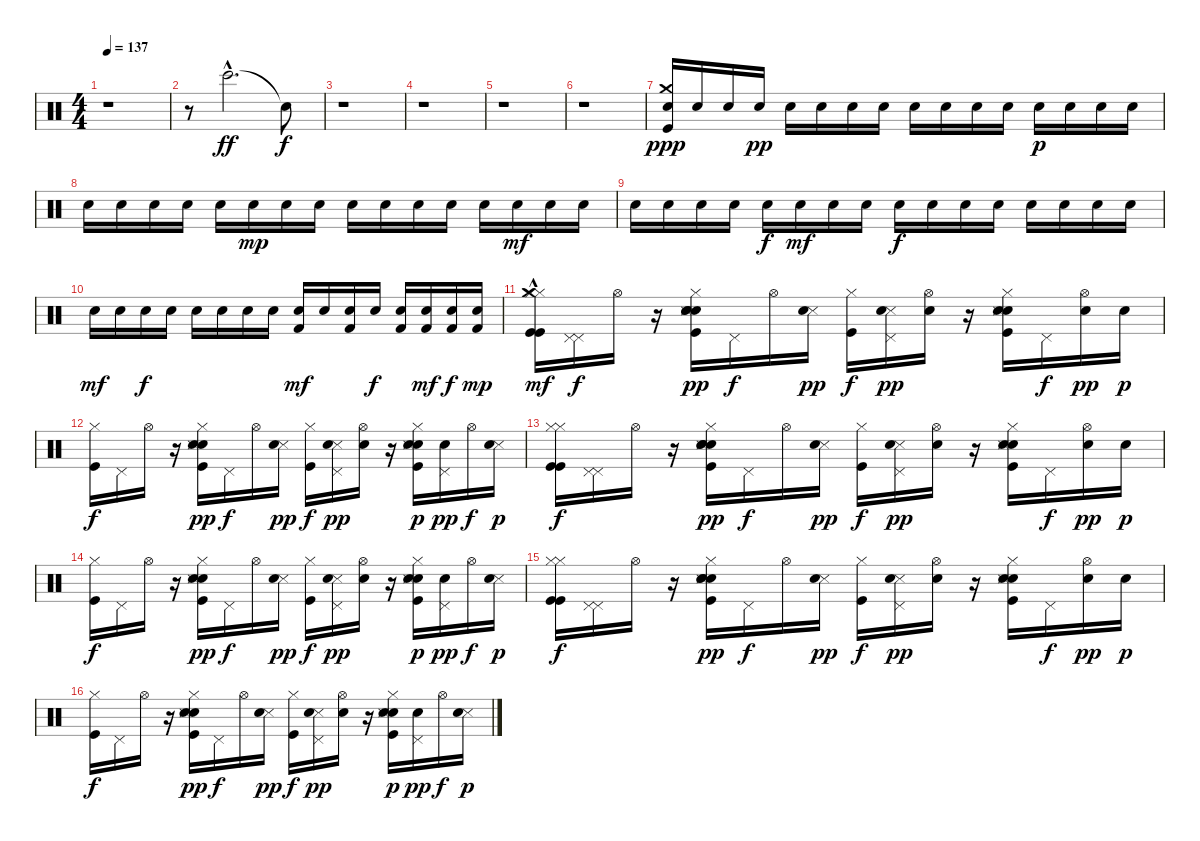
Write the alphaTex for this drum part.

\track "" {instrument percussion}
\staff {score}
\articulation defaults
\ts (4 4)
\tempo 137
\clef neutral
\ks c
r.1{dy ff} |
r.8 "Bongo High (hit)"{hac}.2{d} "Snare (hit)"{t}.8{dy f} |
r.1 |
r.1 |
r.1 |
r.1 |
("Kick (hit)" "Crash medium (hit)" "Electric Snare (hit)").16{dy ppp} "Electric Snare (hit)".16 "Electric Snare (hit)".16 "Electric Snare (hit)".16{dy pp} "Electric Snare (hit)".16 "Electric Snare (hit)".16 "Electric Snare (hit)".16 "Electric Snare (hit)".16 "Electric Snare (hit)".16 "Electric Snare (hit)".16 "Electric Snare (hit)".16 "Electric Snare (hit)".16 "Electric Snare (hit)".16{dy p} "Electric Snare (hit)".16 "Electric Snare (hit)".16 "Electric Snare (hit)".16 |
"Electric Snare (hit)".16 "Electric Snare (hit)".16 "Electric Snare (hit)".16 "Electric Snare (hit)".16 "Electric Snare (hit)".16 "Electric Snare (hit)".16{dy mp} "Electric Snare (hit)".16 "Electric Snare (hit)".16 "Electric Snare (hit)".16 "Electric Snare (hit)".16 "Electric Snare (hit)".16 "Electric Snare (hit)".16 "Electric Snare (hit)".16 "Electric Snare (hit)".16{dy mf} "Electric Snare (hit)".16 "Electric Snare (hit)".16 |
"Electric Snare (hit)".16 "Electric Snare (hit)".16 "Electric Snare (hit)".16 "Electric Snare (hit)".16 "Electric Snare (hit)".16{dy f} "Electric Snare (hit)".16{dy mf} "Electric Snare (hit)".16 "Electric Snare (hit)".16 "Electric Snare (hit)".16{dy f} "Electric Snare (hit)".16 "Electric Snare (hit)".16 "Electric Snare (hit)".16 "Electric Snare (hit)".16 "Electric Snare (hit)".16 "Electric Snare (hit)".16 "Electric Snare (hit)".16 |
"Electric Snare (hit)".16{dy mf} "Electric Snare (hit)".16 "Electric Snare (hit)".16{dy f} "Electric Snare (hit)".16 "Electric Snare (hit)".16 "Electric Snare (hit)".16 "Electric Snare (hit)".16 "Electric Snare (hit)".16 ("Kick (hit) 2" "Electric Snare (hit)").16{dy mf} "Electric Snare (hit)".16 ("Kick (hit) 2" "Electric Snare (hit)").16 "Electric Snare (hit)".16{dy f} ("Kick (hit) 2" "Electric Snare (hit)").16 ("Electric Snare (hit)" "Kick (hit) 2").16{dy mf} ("Electric Snare (hit)" "Kick (hit) 2").16{dy f} ("Electric Snare (hit)" "Kick (hit) 2").16{dy mp} |
("Hi-Hat (closed)" "Kick (hit)" "Kick (hit)" "Hi-Hat (closed)" "Crash medium (hit)"{hac}).16{dy mf} ("Pedal Hi-Hat (hit)" "Pedal Hi-Hat (hit)").16{dy f} "Hi-Hat (open)".16 r.16 ("Hand Clap (hit)" "Kick (hit)" "Hi-Hat (closed)" "Snare (side stick) 3" "Metronome (bell)" "Metronome (bell)").16{dy pp} "Pedal Hi-Hat (hit)".16{dy f} "Hi-Hat (open)".16 ("Snare (side stick) 3" "Metronome (bell)").16{dy pp} ("Kick (hit)" "Hi-Hat (closed)").16{dy f} ("Pedal Hi-Hat (hit)" "Snare (side stick) 3" "Metronome (bell)").16{dy pp} ("Hi-Hat (open)" "Metronome (bell)").16 r.16 ("Hand Clap (hit)" "Hi-Hat (closed)" "Kick (hit)" "Snare (side stick) 3" "Metronome (bell)").16 "Pedal Hi-Hat (hit)".16{dy f} ("Hi-Hat (open)" "Metronome (bell)").16{dy pp} "Metronome (bell)".16{dy p} |
("Hi-Hat (closed)" "Kick (hit)").16{dy f} "Pedal Hi-Hat (hit)".16 "Hi-Hat (open)".16 r.16 ("Hand Clap (hit)" "Kick (hit)" "Hi-Hat (closed)" "Snare (side stick) 3" "Metronome (bell)").16{dy pp} "Pedal Hi-Hat (hit)".16{dy f} "Hi-Hat (open)".16 ("Snare (side stick) 3" "Metronome (bell)").16{dy pp} ("Kick (hit)" "Hi-Hat (closed)").16{dy f} ("Pedal Hi-Hat (hit)" "Snare (side stick) 3" "Metronome (bell)").16{dy pp} ("Hi-Hat (open)" "Metronome (bell)").16 r.16 ("Hand Clap (hit)" "Hi-Hat (closed)" "Kick (hit)" "Snare (side stick) 3" "Metronome (bell)").16{dy p} ("Pedal Hi-Hat (hit)" "Metronome (bell)").16{dy pp} "Hi-Hat (open)".16{dy f} ("Snare (side stick) 3" "Metronome (bell)").16{dy p} |
("Hi-Hat (closed)" "Kick (hit)" "Kick (hit)" "Hi-Hat (closed)").16{dy f volume 13} ("Pedal Hi-Hat (hit)" "Pedal Hi-Hat (hit)").16 "Hi-Hat (open)".16 r.16 ("Hand Clap (hit)" "Kick (hit)" "Hi-Hat (closed)" "Snare (side stick) 3" "Metronome (bell)" "Metronome (bell)").16{dy pp} "Pedal Hi-Hat (hit)".16{dy f} "Hi-Hat (open)".16 ("Snare (side stick) 3" "Metronome (bell)").16{dy pp} ("Kick (hit)" "Hi-Hat (closed)").16{dy f} ("Pedal Hi-Hat (hit)" "Snare (side stick) 3" "Metronome (bell)").16{dy pp} ("Hi-Hat (open)" "Metronome (bell)").16 r.16 ("Hand Clap (hit)" "Hi-Hat (closed)" "Kick (hit)" "Snare (side stick) 3" "Metronome (bell)").16 "Pedal Hi-Hat (hit)".16{dy f} ("Hi-Hat (open)" "Metronome (bell)").16{dy pp} "Metronome (bell)".16{dy p} |
("Hi-Hat (closed)" "Kick (hit)").16{dy f} "Pedal Hi-Hat (hit)".16 "Hi-Hat (open)".16 r.16 ("Hand Clap (hit)" "Kick (hit)" "Hi-Hat (closed)" "Snare (side stick) 3" "Metronome (bell)").16{dy pp} "Pedal Hi-Hat (hit)".16{dy f} "Hi-Hat (open)".16 ("Snare (side stick) 3" "Metronome (bell)").16{dy pp} ("Kick (hit)" "Hi-Hat (closed)").16{dy f} ("Pedal Hi-Hat (hit)" "Snare (side stick) 3" "Metronome (bell)").16{dy pp} ("Hi-Hat (open)" "Metronome (bell)").16 r.16 ("Hand Clap (hit)" "Hi-Hat (closed)" "Kick (hit)" "Snare (side stick) 3" "Metronome (bell)").16{dy p} ("Pedal Hi-Hat (hit)" "Metronome (bell)").16{dy pp} "Hi-Hat (open)".16{dy f} ("Snare (side stick) 3" "Metronome (bell)").16{dy p} |
("Hi-Hat (closed)" "Kick (hit)" "Kick (hit)" "Hi-Hat (closed)").16{dy f volume 13} ("Pedal Hi-Hat (hit)" "Pedal Hi-Hat (hit)").16 "Hi-Hat (open)".16 r.16 ("Hand Clap (hit)" "Kick (hit)" "Hi-Hat (closed)" "Snare (side stick) 3" "Metronome (bell)" "Metronome (bell)").16{dy pp} "Pedal Hi-Hat (hit)".16{dy f} "Hi-Hat (open)".16 ("Snare (side stick) 3" "Metronome (bell)").16{dy pp} ("Kick (hit)" "Hi-Hat (closed)").16{dy f} ("Pedal Hi-Hat (hit)" "Snare (side stick) 3" "Metronome (bell)").16{dy pp} ("Hi-Hat (open)" "Metronome (bell)").16 r.16 ("Hand Clap (hit)" "Hi-Hat (closed)" "Kick (hit)" "Snare (side stick) 3" "Metronome (bell)").16 "Pedal Hi-Hat (hit)".16{dy f} ("Hi-Hat (open)" "Metronome (bell)").16{dy pp} "Metronome (bell)".16{dy p} |
("Hi-Hat (closed)" "Kick (hit)").16{dy f} "Pedal Hi-Hat (hit)".16 "Hi-Hat (open)".16 r.16 ("Hand Clap (hit)" "Kick (hit)" "Hi-Hat (closed)" "Snare (side stick) 3" "Metronome (bell)").16{dy pp} "Pedal Hi-Hat (hit)".16{dy f} "Hi-Hat (open)".16 ("Snare (side stick) 3" "Metronome (bell)").16{dy pp} ("Kick (hit)" "Hi-Hat (closed)").16{dy f} ("Pedal Hi-Hat (hit)" "Snare (side stick) 3" "Metronome (bell)").16{dy pp} ("Hi-Hat (open)" "Metronome (bell)").16 r.16 ("Hand Clap (hit)" "Hi-Hat (closed)" "Kick (hit)" "Snare (side stick) 3" "Metronome (bell)").16{dy p} ("Pedal Hi-Hat (hit)" "Metronome (bell)").16{dy pp} "Hi-Hat (open)".16{dy f} ("Snare (side stick) 3" "Metronome (bell)").16{dy p}
